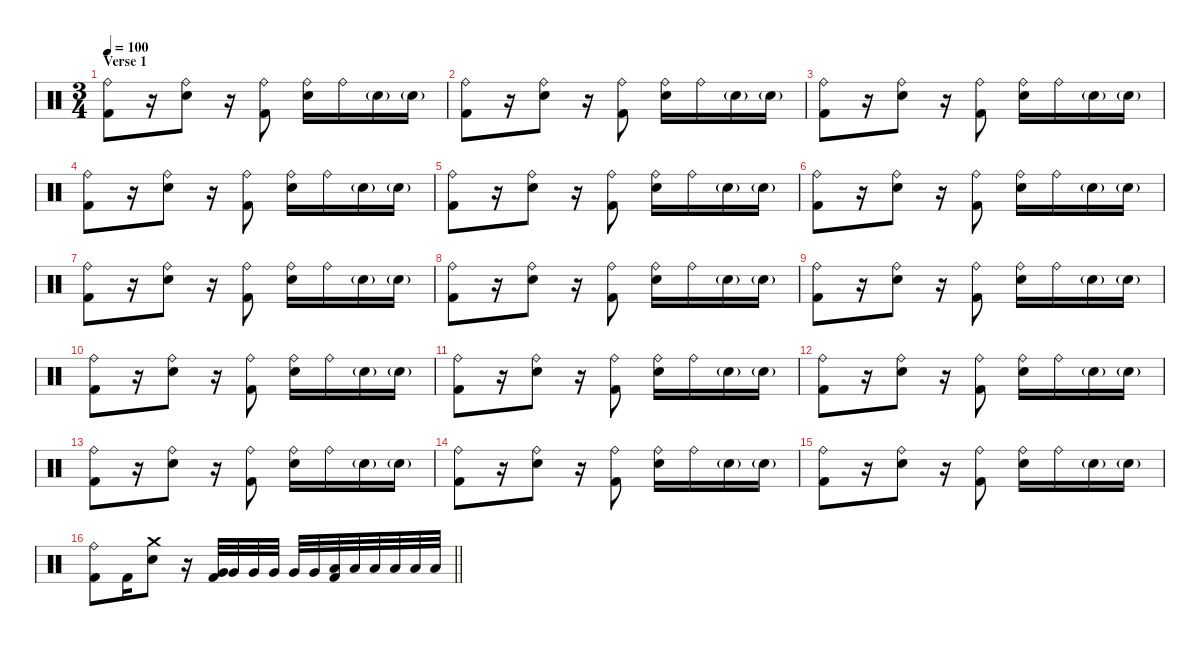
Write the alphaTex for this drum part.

\defaultSystemsLayout 4
\hideDynamics
\bracketExtendMode nobrackets
\singleTrackTrackNamePolicy hidden
\multiTrackTrackNamePolicy hidden
\firstSystemTrackNameMode fullname
\firstSystemTrackNameOrientation horizontal
\otherSystemsTrackNameOrientation horizontal
\track ("Bill Ward - Drums" "drm.") {instrument percussion}
\staff {score}
\articulation defaults
\ts (3 4)
\section ("" "Verse 1")
\tempo 100
\clef neutral
\ks c
("Ride (bell)" "Kick (hit) 2").8{dy f} r.16 ("Ride (bell)" "Snare (hit) 2").8 r.16 ("Ride (bell)" "Kick (hit) 2").8 ("Ride (bell)" "Snare (hit) 2").16 "Ride (bell)".16 "Snare (hit) 2"{g}.16{dy mf} "Snare (hit) 2"{g}.16 |
("Ride (bell)" "Kick (hit) 2").8{dy f} r.16 ("Ride (bell)" "Snare (hit) 2").8 r.16 ("Ride (bell)" "Kick (hit) 2").8 ("Ride (bell)" "Snare (hit) 2").16 "Ride (bell)".16 "Snare (hit) 2"{g}.16{dy mf} "Snare (hit) 2"{g}.16 |
("Ride (bell)" "Kick (hit) 2").8{dy f} r.16 ("Ride (bell)" "Snare (hit) 2").8 r.16 ("Ride (bell)" "Kick (hit) 2").8 ("Ride (bell)" "Snare (hit) 2").16 "Ride (bell)".16 "Snare (hit) 2"{g}.16{dy mf} "Snare (hit) 2"{g}.16 |
("Ride (bell)" "Kick (hit) 2").8{dy f} r.16 ("Ride (bell)" "Snare (hit) 2").8 r.16 ("Ride (bell)" "Kick (hit) 2").8 ("Ride (bell)" "Snare (hit) 2").16 "Ride (bell)".16 "Snare (hit) 2"{g}.16{dy mf} "Snare (hit) 2"{g}.16 |
("Ride (bell)" "Kick (hit) 2").8{dy f} r.16 ("Ride (bell)" "Snare (hit) 2").8 r.16 ("Ride (bell)" "Kick (hit) 2").8 ("Ride (bell)" "Snare (hit) 2").16 "Ride (bell)".16 "Snare (hit) 2"{g}.16{dy mf} "Snare (hit) 2"{g}.16 |
("Ride (bell)" "Kick (hit) 2").8{dy f} r.16 ("Ride (bell)" "Snare (hit) 2").8 r.16 ("Ride (bell)" "Kick (hit) 2").8 ("Ride (bell)" "Snare (hit) 2").16 "Ride (bell)".16 "Snare (hit) 2"{g}.16{dy mf} "Snare (hit) 2"{g}.16 |
("Ride (bell)" "Kick (hit) 2").8{dy f} r.16 ("Ride (bell)" "Snare (hit) 2").8 r.16 ("Ride (bell)" "Kick (hit) 2").8 ("Ride (bell)" "Snare (hit) 2").16 "Ride (bell)".16 "Snare (hit) 2"{g}.16{dy mf} "Snare (hit) 2"{g}.16 |
("Ride (bell)" "Kick (hit) 2").8{dy f} r.16 ("Ride (bell)" "Snare (hit) 2").8 r.16 ("Ride (bell)" "Kick (hit) 2").8 ("Ride (bell)" "Snare (hit) 2").16 "Ride (bell)".16 "Snare (hit) 2"{g}.16{dy mf} "Snare (hit) 2"{g}.16 |
("Ride (bell)" "Kick (hit) 2").8{dy f} r.16 ("Ride (bell)" "Snare (hit) 2").8 r.16 ("Ride (bell)" "Kick (hit) 2").8 ("Ride (bell)" "Snare (hit) 2").16 "Ride (bell)".16 "Snare (hit) 2"{g}.16{dy mf} "Snare (hit) 2"{g}.16 |
("Ride (bell)" "Kick (hit) 2").8{dy f} r.16 ("Ride (bell)" "Snare (hit) 2").8 r.16 ("Ride (bell)" "Kick (hit) 2").8 ("Ride (bell)" "Snare (hit) 2").16 "Ride (bell)".16 "Snare (hit) 2"{g}.16{dy mf} "Snare (hit) 2"{g}.16 |
("Ride (bell)" "Kick (hit) 2").8{dy f} r.16 ("Ride (bell)" "Snare (hit) 2").8 r.16 ("Ride (bell)" "Kick (hit) 2").8 ("Ride (bell)" "Snare (hit) 2").16 "Ride (bell)".16 "Snare (hit) 2"{g}.16{dy mf} "Snare (hit) 2"{g}.16 |
("Ride (bell)" "Kick (hit) 2").8{dy f} r.16 ("Ride (bell)" "Snare (hit) 2").8 r.16 ("Ride (bell)" "Kick (hit) 2").8 ("Ride (bell)" "Snare (hit) 2").16 "Ride (bell)".16 "Snare (hit) 2"{g}.16{dy mf} "Snare (hit) 2"{g}.16 |
("Ride (bell)" "Kick (hit) 2").8{dy f} r.16 ("Ride (bell)" "Snare (hit) 2").8 r.16 ("Ride (bell)" "Kick (hit) 2").8 ("Ride (bell)" "Snare (hit) 2").16 "Ride (bell)".16 "Snare (hit) 2"{g}.16{dy mf} "Snare (hit) 2"{g}.16 |
("Ride (bell)" "Kick (hit) 2").8{dy f} r.16 ("Ride (bell)" "Snare (hit) 2").8 r.16 ("Ride (bell)" "Kick (hit) 2").8 ("Ride (bell)" "Snare (hit) 2").16 "Ride (bell)".16 "Snare (hit) 2"{g}.16{dy mf} "Snare (hit) 2"{g}.16 |
("Ride (bell)" "Kick (hit) 2").8{dy f} r.16 ("Ride (bell)" "Snare (hit) 2").8 r.16 ("Ride (bell)" "Kick (hit) 2").8 ("Ride (bell)" "Snare (hit) 2").16 "Ride (bell)".16 "Snare (hit) 2"{g}.16{dy mf} "Snare (hit) 2"{g}.16 |
\barLineRight lightlight
("Ride (bell)" "Kick (hit) 2").8{dy f} "Kick (hit) 2".16 ("Crash medium (hit)" "Snare (hit) 2").8 r.16 ("Very Low Tom (hit)" "Kick (hit) 2").32 "Very Low Tom (hit)".32 "Very Low Tom (hit)".32 "Very Low Tom (hit)".32 "Very Low Tom (hit)".32 "Very Low Tom (hit)".32 ("Low Floor Tom (hit)" "Kick (hit) 2").32 "Low Floor Tom (hit)".32 "Low Floor Tom (hit)".32 "Low Floor Tom (hit)".32 "Low Floor Tom (hit)".32 "Low Floor Tom (hit)".32
